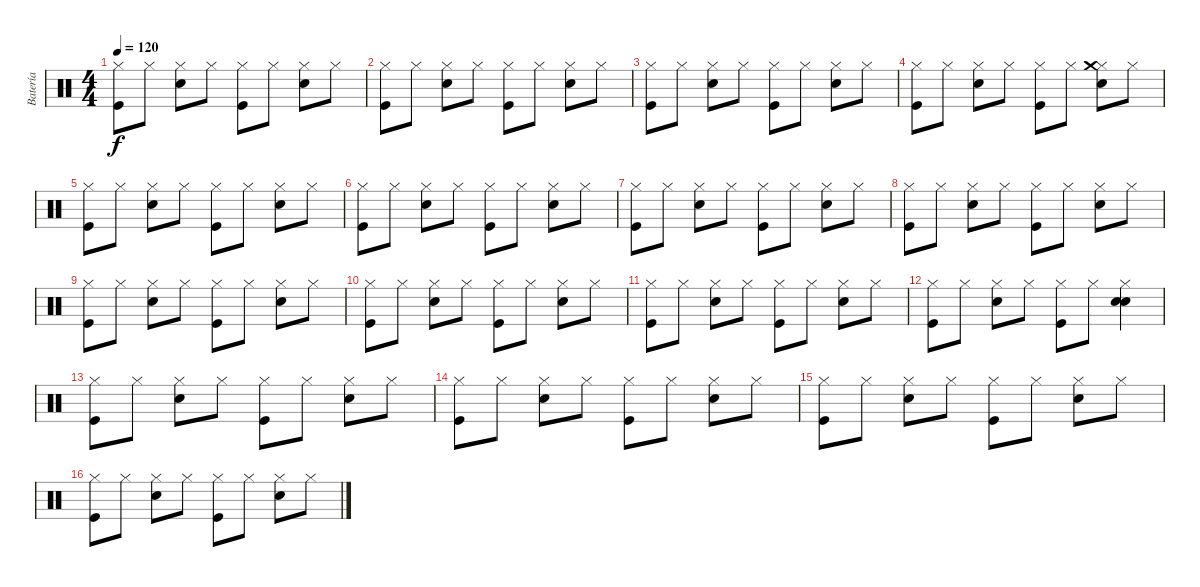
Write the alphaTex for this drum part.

\track ("Batería" "Batería") {instrument percussion}
\staff {score}
\articulation defaults
\ts (4 4)
\tempo 120
\clef neutral
\ks c
("Hi-Hat (closed)" "Kick (hit)").8{dy f} "Hi-Hat (closed)".8 ("Hi-Hat (closed)" "Snare (hit) 2").8 "Hi-Hat (closed)".8 ("Hi-Hat (closed)" "Kick (hit)").8 "Hi-Hat (closed)".8 ("Hi-Hat (closed)" "Snare (hit) 2").8 "Hi-Hat (closed)".8 |
("Hi-Hat (closed)" "Kick (hit)").8 "Hi-Hat (closed)".8 ("Hi-Hat (closed)" "Snare (hit) 2").8 "Hi-Hat (closed)".8 ("Hi-Hat (closed)" "Kick (hit)").8 "Hi-Hat (closed)".8 ("Hi-Hat (closed)" "Snare (hit) 2").8 "Hi-Hat (closed)".8 |
("Hi-Hat (closed)" "Kick (hit)").8 "Hi-Hat (closed)".8 ("Hi-Hat (closed)" "Snare (hit) 2").8 "Hi-Hat (closed)".8 ("Hi-Hat (closed)" "Kick (hit)").8 "Hi-Hat (closed)".8 ("Hi-Hat (closed)" "Snare (hit) 2").8 "Hi-Hat (closed)".8 |
("Hi-Hat (closed)" "Kick (hit)").8 "Hi-Hat (closed)".8 ("Hi-Hat (closed)" "Snare (hit) 2").8 "Hi-Hat (closed)".8 ("Hi-Hat (closed)" "Kick (hit)").8 "Hi-Hat (closed)".8 ("Hi-Hat (closed)" "Snare (hit) 2" "Crash medium (hit)").8 "Hi-Hat (closed)".8 |
("Hi-Hat (closed)" "Kick (hit)").8 "Hi-Hat (closed)".8 ("Hi-Hat (closed)" "Snare (hit) 2").8 "Hi-Hat (closed)".8 ("Hi-Hat (closed)" "Kick (hit)").8 "Hi-Hat (closed)".8 ("Hi-Hat (closed)" "Snare (hit) 2").8 "Hi-Hat (closed)".8 |
("Hi-Hat (closed)" "Kick (hit)").8 "Hi-Hat (closed)".8 ("Hi-Hat (closed)" "Snare (hit) 2").8 "Hi-Hat (closed)".8 ("Hi-Hat (closed)" "Kick (hit)").8 "Hi-Hat (closed)".8 ("Hi-Hat (closed)" "Snare (hit) 2").8 "Hi-Hat (closed)".8 |
("Hi-Hat (closed)" "Kick (hit)").8 "Hi-Hat (closed)".8 ("Hi-Hat (closed)" "Snare (hit) 2").8 "Hi-Hat (closed)".8 ("Hi-Hat (closed)" "Kick (hit)").8 "Hi-Hat (closed)".8 ("Hi-Hat (closed)" "Snare (hit) 2").8 "Hi-Hat (closed)".8 |
("Hi-Hat (closed)" "Kick (hit)").8 "Hi-Hat (closed)".8 ("Hi-Hat (closed)" "Snare (hit) 2").8 "Hi-Hat (closed)".8 ("Hi-Hat (closed)" "Kick (hit)").8 "Hi-Hat (closed)".8 ("Hi-Hat (closed)" "Snare (hit) 2").8 "Hi-Hat (closed)".8 |
("Hi-Hat (closed)" "Kick (hit)").8 "Hi-Hat (closed)".8 ("Hi-Hat (closed)" "Snare (hit) 2").8 "Hi-Hat (closed)".8 ("Hi-Hat (closed)" "Kick (hit)").8 "Hi-Hat (closed)".8 ("Hi-Hat (closed)" "Snare (hit) 2").8 "Hi-Hat (closed)".8 |
("Hi-Hat (closed)" "Kick (hit)").8 "Hi-Hat (closed)".8 ("Hi-Hat (closed)" "Snare (hit) 2").8 "Hi-Hat (closed)".8 ("Hi-Hat (closed)" "Kick (hit)").8 "Hi-Hat (closed)".8 ("Hi-Hat (closed)" "Snare (hit) 2").8 "Hi-Hat (closed)".8 |
("Hi-Hat (closed)" "Kick (hit)").8 "Hi-Hat (closed)".8 ("Hi-Hat (closed)" "Snare (hit) 2").8 "Hi-Hat (closed)".8 ("Hi-Hat (closed)" "Kick (hit)").8 "Hi-Hat (closed)".8 ("Hi-Hat (closed)" "Snare (hit) 2").8 "Hi-Hat (closed)".8 |
("Hi-Hat (closed)" "Kick (hit)").8 "Hi-Hat (closed)".8 ("Hi-Hat (closed)" "Snare (hit) 2").8 "Hi-Hat (closed)".8 ("Hi-Hat (closed)" "Kick (hit)").8 "Hi-Hat (closed)".8 ("Hi-Hat (closed)" "Snare (hit) 2" "Snare (hit) 2").4 |
("Hi-Hat (closed)" "Kick (hit)").8 "Hi-Hat (closed)".8 ("Hi-Hat (closed)" "Snare (hit) 2").8 "Hi-Hat (closed)".8 ("Hi-Hat (closed)" "Kick (hit)").8 "Hi-Hat (closed)".8 ("Hi-Hat (closed)" "Snare (hit) 2").8 "Hi-Hat (closed)".8 |
("Hi-Hat (closed)" "Kick (hit)").8 "Hi-Hat (closed)".8 ("Hi-Hat (closed)" "Snare (hit) 2").8 "Hi-Hat (closed)".8 ("Hi-Hat (closed)" "Kick (hit)").8 "Hi-Hat (closed)".8 ("Hi-Hat (closed)" "Snare (hit) 2").8 "Hi-Hat (closed)".8 |
("Hi-Hat (closed)" "Kick (hit)").8 "Hi-Hat (closed)".8 ("Hi-Hat (closed)" "Snare (hit) 2").8 "Hi-Hat (closed)".8 ("Hi-Hat (closed)" "Kick (hit)").8 "Hi-Hat (closed)".8 ("Hi-Hat (closed)" "Snare (hit) 2").8 "Hi-Hat (closed)".8 |
("Hi-Hat (closed)" "Kick (hit)").8 "Hi-Hat (closed)".8 ("Hi-Hat (closed)" "Snare (hit) 2").8 "Hi-Hat (closed)".8 ("Hi-Hat (closed)" "Kick (hit)").8 "Hi-Hat (closed)".8 ("Hi-Hat (closed)" "Snare (hit) 2").8 "Hi-Hat (closed)".8
